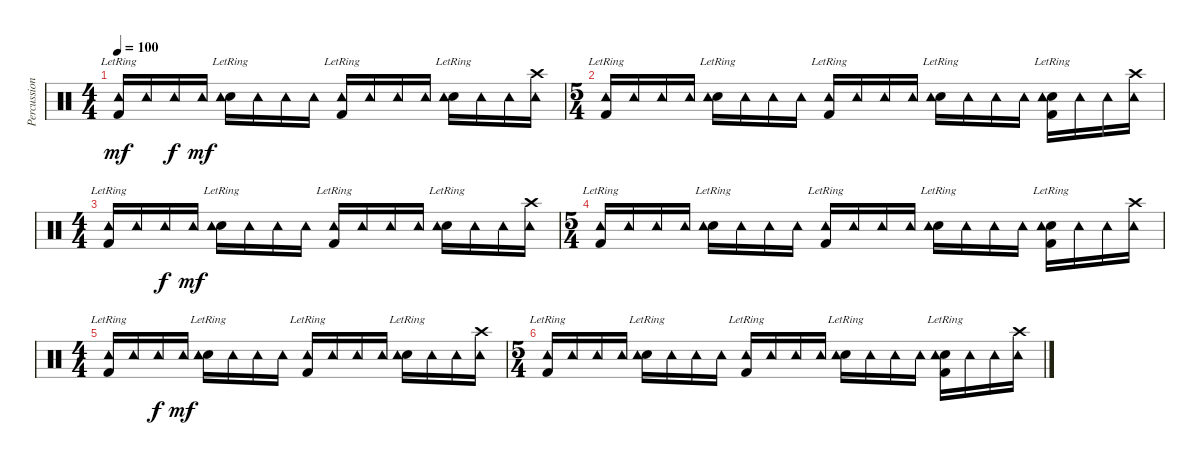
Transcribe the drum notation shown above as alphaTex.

\track ("Percussion" "Percussion") {instrument percussion}
\staff {score}
\articulation defaults
\ts (4 4)
\tempo 100
\clef neutral
\ks c
("Kick (hit) 2"{lr} "Tambourine (hit)").16{dy mf} "Tambourine (hit)".16 "Tambourine (hit)".16{dy f} "Tambourine (hit)".16{dy mf} ("Snare (hit) 2"{lr} "Tambourine (hit)").16 "Tambourine (hit)".16 "Tambourine (hit)".16 "Tambourine (hit)".16 ("Kick (hit) 2"{lr} "Tambourine (hit)").16 "Tambourine (hit)".16 "Tambourine (hit)".16 "Tambourine (hit)".16 ("Snare (hit) 2"{lr} "Tambourine (hit)").16 "Tambourine (hit)".16 "Tambourine (hit)".16 ("Crash high (hit)" "Tambourine (hit)").16 |
\ts (5 4)
("Kick (hit) 2"{lr} "Tambourine (hit)").16 "Tambourine (hit)".16 "Tambourine (hit)".16 "Tambourine (hit)".16 ("Snare (hit) 2"{lr} "Tambourine (hit)").16 "Tambourine (hit)".16 "Tambourine (hit)".16 "Tambourine (hit)".16 ("Kick (hit) 2"{lr} "Tambourine (hit)").16 "Tambourine (hit)".16 "Tambourine (hit)".16 "Tambourine (hit)".16 ("Snare (hit) 2"{lr} "Tambourine (hit)").16 "Tambourine (hit)".16 "Tambourine (hit)".16 "Tambourine (hit)".16 ("Kick (hit) 2"{lr} "Snare (hit) 2"{lr} "Tambourine (hit)").16 "Tambourine (hit)".16 "Tambourine (hit)".16 ("Crash high (hit)" "Tambourine (hit)").16 |
\ts (4 4)
("Kick (hit) 2"{lr} "Tambourine (hit)").16 "Tambourine (hit)".16 "Tambourine (hit)".16{dy f} "Tambourine (hit)".16{dy mf} ("Snare (hit) 2"{lr} "Tambourine (hit)").16 "Tambourine (hit)".16 "Tambourine (hit)".16 "Tambourine (hit)".16 ("Kick (hit) 2"{lr} "Tambourine (hit)").16 "Tambourine (hit)".16 "Tambourine (hit)".16 "Tambourine (hit)".16 ("Snare (hit) 2"{lr} "Tambourine (hit)").16 "Tambourine (hit)".16 "Tambourine (hit)".16 ("Crash high (hit)" "Tambourine (hit)").16 |
\ts (5 4)
("Kick (hit) 2"{lr} "Tambourine (hit)").16 "Tambourine (hit)".16 "Tambourine (hit)".16 "Tambourine (hit)".16 ("Snare (hit) 2"{lr} "Tambourine (hit)").16 "Tambourine (hit)".16 "Tambourine (hit)".16 "Tambourine (hit)".16 ("Kick (hit) 2"{lr} "Tambourine (hit)").16 "Tambourine (hit)".16 "Tambourine (hit)".16 "Tambourine (hit)".16 ("Snare (hit) 2"{lr} "Tambourine (hit)").16 "Tambourine (hit)".16 "Tambourine (hit)".16 "Tambourine (hit)".16 ("Kick (hit) 2"{lr} "Snare (hit) 2"{lr} "Tambourine (hit)").16 "Tambourine (hit)".16 "Tambourine (hit)".16 ("Crash high (hit)" "Tambourine (hit)").16 |
\ts (4 4)
("Kick (hit) 2"{lr} "Tambourine (hit)").16 "Tambourine (hit)".16 "Tambourine (hit)".16{dy f} "Tambourine (hit)".16{dy mf} ("Snare (hit) 2"{lr} "Tambourine (hit)").16 "Tambourine (hit)".16 "Tambourine (hit)".16 "Tambourine (hit)".16 ("Kick (hit) 2"{lr} "Tambourine (hit)").16 "Tambourine (hit)".16 "Tambourine (hit)".16 "Tambourine (hit)".16 ("Snare (hit) 2"{lr} "Tambourine (hit)").16 "Tambourine (hit)".16 "Tambourine (hit)".16 ("Crash high (hit)" "Tambourine (hit)").16 |
\ts (5 4)
("Kick (hit) 2"{lr} "Tambourine (hit)").16 "Tambourine (hit)".16 "Tambourine (hit)".16 "Tambourine (hit)".16 ("Snare (hit) 2"{lr} "Tambourine (hit)").16 "Tambourine (hit)".16 "Tambourine (hit)".16 "Tambourine (hit)".16 ("Kick (hit) 2"{lr} "Tambourine (hit)").16 "Tambourine (hit)".16 "Tambourine (hit)".16 "Tambourine (hit)".16 ("Snare (hit) 2"{lr} "Tambourine (hit)").16 "Tambourine (hit)".16 "Tambourine (hit)".16 "Tambourine (hit)".16 ("Kick (hit) 2"{lr} "Snare (hit) 2"{lr} "Tambourine (hit)").16 "Tambourine (hit)".16 "Tambourine (hit)".16 ("Crash high (hit)" "Tambourine (hit)").16
